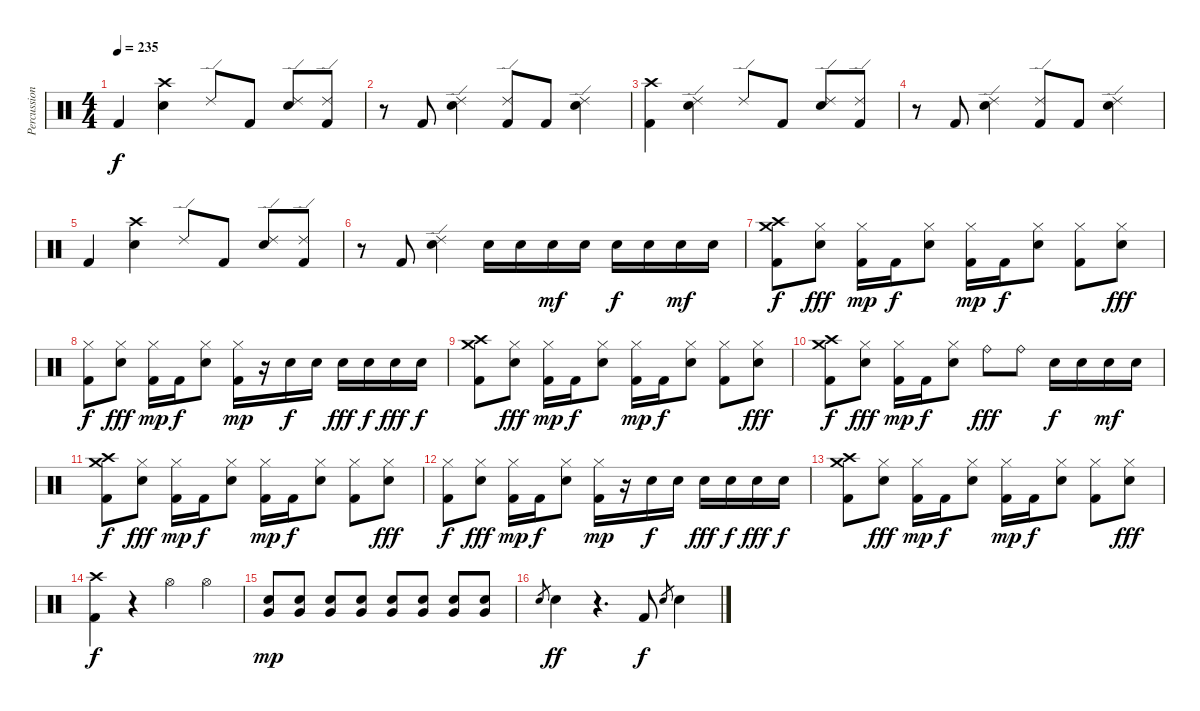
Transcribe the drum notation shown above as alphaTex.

\track ("Percussion" "Percussion") {instrument percussion}
\staff {score}
\articulation defaults
\ts (4 4)
\tempo 235
\clef neutral
\ks c "Kick (hit) 2".4{dy f}
("Crash high (hit)" "Snare (hit) 2").4 "Ride (edge) 2".8 "Kick (hit) 2".8 ("Ride (edge) 2" "Snare (hit) 2").8 ("Ride (edge) 2" "Kick (hit) 2").8 |
r.8 "Kick (hit) 2".8 ("Ride (edge) 2" "Snare (hit) 2").4 ("Ride (edge) 2" "Kick (hit) 2").8 "Kick (hit) 2".8 ("Ride (edge) 2" "Snare (hit) 2").4 |
("Crash high (hit)" "Kick (hit) 2").4 ("Ride (edge) 2" "Snare (hit) 2").4 "Ride (edge) 2".8 "Kick (hit) 2".8 ("Ride (edge) 2" "Snare (hit) 2").8 ("Ride (edge) 2" "Kick (hit) 2").8 |
r.8 "Kick (hit) 2".8 ("Ride (edge) 2" "Snare (hit) 2").4 ("Ride (edge) 2" "Kick (hit) 2").8 "Kick (hit) 2".8 ("Ride (edge) 2" "Snare (hit) 2").4 |
"Kick (hit) 2".4 ("Crash high (hit)" "Snare (hit) 2").4 "Ride (edge) 2".8 "Kick (hit) 2".8 ("Ride (edge) 2" "Snare (hit) 2").8 ("Ride (edge) 2" "Kick (hit) 2").8 |
r.8 "Kick (hit) 2".8 ("Ride (edge) 2" "Snare (hit) 2").4 "Electric Snare (hit)".16 "Electric Snare (hit)".16 "Electric Snare (hit)".16{dy mf} "Electric Snare (hit)".16 "Electric Snare (hit)".16{dy f} "Electric Snare (hit)".16 "Electric Snare (hit)".16{dy mf} "Electric Snare (hit)".16 |
("Crash medium (hit)" "Kick (hit) 2" "Crash high (hit)").8{dy f} ("Electric Snare (hit)" "Hi-Hat (closed)").8{dy fff} ("Hi-Hat (closed)" "Kick (hit) 2").16{dy mp} "Kick (hit) 2".16{dy f} ("Electric Snare (hit)" "Hi-Hat (closed)").8 ("Hi-Hat (closed)" "Kick (hit) 2").16{dy mp} "Kick (hit) 2".16{dy f} ("Electric Snare (hit)" "Hi-Hat (closed)").8 ("Kick (hit) 2" "Hi-Hat (closed)").8 ("Hi-Hat (closed)" "Electric Snare (hit)").8{dy fff} |
("Hi-Hat (closed)" "Kick (hit) 2").8{dy f} ("Electric Snare (hit)" "Hi-Hat (closed)").8{dy fff} ("Hi-Hat (closed)" "Kick (hit) 2").16{dy mp} "Kick (hit) 2".16{dy f} ("Electric Snare (hit)" "Hi-Hat (closed)").8 ("Hi-Hat (closed)" "Kick (hit) 2").16{dy mp} r.16 "Electric Snare (hit)".16{dy f} "Electric Snare (hit)".16 "Electric Snare (hit)".16{dy fff} "Electric Snare (hit)".16{dy f} "Electric Snare (hit)".16{dy fff} "Electric Snare (hit)".16{dy f} |
("Crash medium (hit)" "Kick (hit) 2" "Crash high (hit)").8 ("Electric Snare (hit)" "Hi-Hat (closed)").8{dy fff} ("Hi-Hat (closed)" "Kick (hit) 2").16{dy mp} "Kick (hit) 2".16{dy f} ("Electric Snare (hit)" "Hi-Hat (closed)").8 ("Hi-Hat (closed)" "Kick (hit) 2").16{dy mp} "Kick (hit) 2".16{dy f} ("Electric Snare (hit)" "Hi-Hat (closed)").8 ("Kick (hit) 2" "Hi-Hat (closed)").8 ("Hi-Hat (closed)" "Electric Snare (hit)").8{dy fff} |
("Crash medium (hit)" "Kick (hit) 2" "Crash high (hit)").8{dy f} ("Electric Snare (hit)" "Hi-Hat (closed)").8{dy fff} ("Hi-Hat (closed)" "Kick (hit) 2").16{dy mp} "Kick (hit) 2".16{dy f} ("Electric Snare (hit)" "Hi-Hat (closed)").8 "Ride (bell)".8{dy fff} "Ride (bell)".8 "Electric Snare (hit)".16{dy f} "Electric Snare (hit)".16 "Electric Snare (hit)".16{dy mf} "Electric Snare (hit)".16 |
("Crash medium (hit)" "Kick (hit) 2" "Crash high (hit)").8{dy f} ("Electric Snare (hit)" "Hi-Hat (closed)").8{dy fff} ("Hi-Hat (closed)" "Kick (hit) 2").16{dy mp} "Kick (hit) 2".16{dy f} ("Electric Snare (hit)" "Hi-Hat (closed)").8 ("Hi-Hat (closed)" "Kick (hit) 2").16{dy mp} "Kick (hit) 2".16{dy f} ("Electric Snare (hit)" "Hi-Hat (closed)").8 ("Kick (hit) 2" "Hi-Hat (closed)").8 ("Hi-Hat (closed)" "Electric Snare (hit)").8{dy fff} |
("Hi-Hat (closed)" "Kick (hit) 2").8{dy f} ("Electric Snare (hit)" "Hi-Hat (closed)").8{dy fff} ("Hi-Hat (closed)" "Kick (hit) 2").16{dy mp} "Kick (hit) 2".16{dy f} ("Electric Snare (hit)" "Hi-Hat (closed)").8 ("Hi-Hat (closed)" "Kick (hit) 2").16{dy mp} r.16 "Electric Snare (hit)".16{dy f} "Electric Snare (hit)".16 "Electric Snare (hit)".16{dy fff} "Electric Snare (hit)".16{dy f} "Electric Snare (hit)".16{dy fff} "Electric Snare (hit)".16{dy f} |
("Crash medium (hit)" "Kick (hit) 2" "Crash high (hit)").8 ("Electric Snare (hit)" "Hi-Hat (closed)").8{dy fff} ("Hi-Hat (closed)" "Kick (hit) 2").16{dy mp} "Kick (hit) 2".16{dy f} ("Electric Snare (hit)" "Hi-Hat (closed)").8 ("Hi-Hat (closed)" "Kick (hit) 2").16{dy mp} "Kick (hit) 2".16{dy f} ("Electric Snare (hit)" "Hi-Hat (closed)").8 ("Kick (hit) 2" "Hi-Hat (closed)").8 ("Hi-Hat (closed)" "Electric Snare (hit)").8{dy fff} |
("Crash high (hit)" "Kick (hit) 2").4{dy f volume 0} r.4 "Hi-Hat (open)".4{volume 16} "Hi-Hat (open)".4 |
("Very Low Tom (hit)" "Snare (hit) 2").8{dy mp} ("Very Low Tom (hit)" "Snare (hit) 2").8 ("Very Low Tom (hit)" "Snare (hit) 2").8 ("Very Low Tom (hit)" "Snare (hit) 2").8 ("Very Low Tom (hit)" "Snare (hit) 2").8 ("Very Low Tom (hit)" "Snare (hit) 2").8 ("Very Low Tom (hit)" "Snare (hit) 2").8 ("Very Low Tom (hit)" "Snare (hit) 2").8 |
"Snare (hit) 2".8{gr} "Snare (hit) 2".4{dy ff volume 12} r.4{d} "Kick (hit) 2".8{dy f} "Snare (hit) 2".8{gr} "Snare (hit) 2".4
